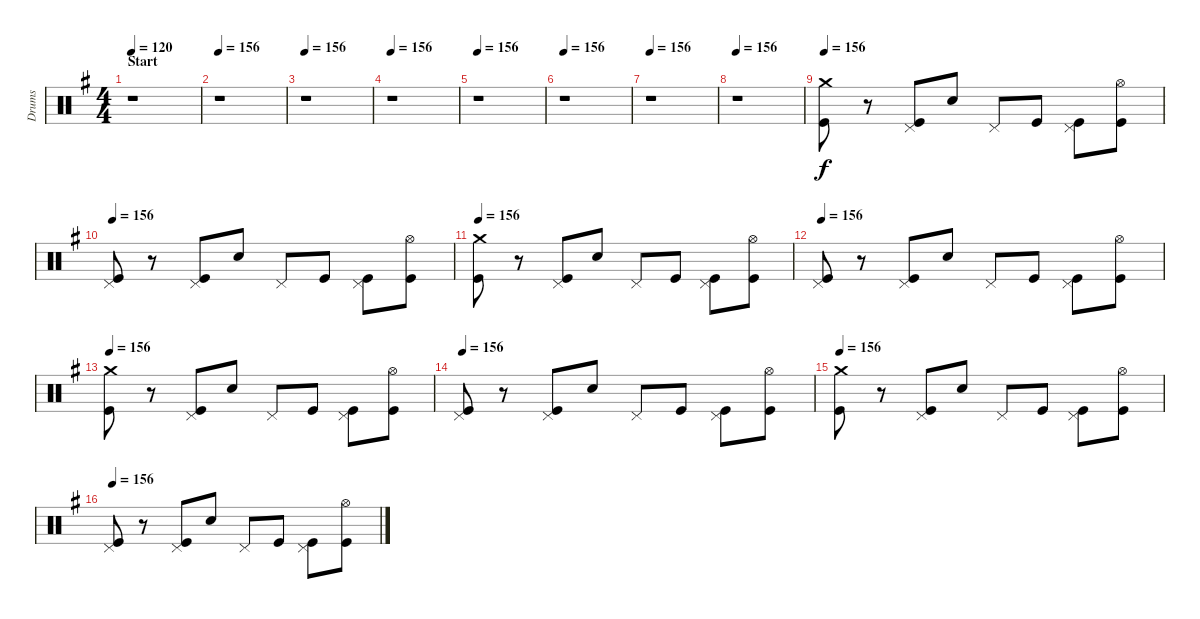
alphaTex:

\track ("Drums" "Drums") {instrument percussion}
\staff {score}
\articulation defaults
\ts (4 4)
\section ("" "Start")
\tempo 120
\tempo 156
\tempo 120
\clef neutral
\ks g
r.1{dy f} |
\tempo 156
r.1 |
\tempo 156
r.1 |
\tempo 156
r.1 |
\tempo 156
r.1 |
\tempo 156
r.1 |
\tempo 156
r.1 |
\tempo 156
r.1 |
\tempo 156
("Crash medium (hit)" "Kick (hit)").8 r.8 ("Pedal Hi-Hat (hit)" "Kick (hit)").8 "Electric Snare (hit)".8 "Pedal Hi-Hat (hit)".8 "Kick (hit)".8 ("Pedal Hi-Hat (hit)" "Kick (hit)").8 ("Hi-Hat (open)" "Kick (hit)").8 |
\tempo 156
("Pedal Hi-Hat (hit)" "Kick (hit)").8 r.8 ("Pedal Hi-Hat (hit)" "Kick (hit)").8 "Electric Snare (hit)".8 "Pedal Hi-Hat (hit)".8 "Kick (hit)".8 ("Pedal Hi-Hat (hit)" "Kick (hit)").8 ("Hi-Hat (open)" "Kick (hit)").8 |
\tempo 156
("Crash medium (hit)" "Kick (hit)").8 r.8 ("Pedal Hi-Hat (hit)" "Kick (hit)").8 "Electric Snare (hit)".8 "Pedal Hi-Hat (hit)".8 "Kick (hit)".8 ("Pedal Hi-Hat (hit)" "Kick (hit)").8 ("Hi-Hat (open)" "Kick (hit)").8 |
\tempo 156
("Pedal Hi-Hat (hit)" "Kick (hit)").8 r.8 ("Pedal Hi-Hat (hit)" "Kick (hit)").8 "Electric Snare (hit)".8 "Pedal Hi-Hat (hit)".8 "Kick (hit)".8 ("Pedal Hi-Hat (hit)" "Kick (hit)").8 ("Hi-Hat (open)" "Kick (hit)").8 |
\tempo 156
("Crash medium (hit)" "Kick (hit)").8 r.8 ("Pedal Hi-Hat (hit)" "Kick (hit)").8 "Electric Snare (hit)".8 "Pedal Hi-Hat (hit)".8 "Kick (hit)".8 ("Pedal Hi-Hat (hit)" "Kick (hit)").8 ("Hi-Hat (open)" "Kick (hit)").8 |
\tempo 156
("Pedal Hi-Hat (hit)" "Kick (hit)").8 r.8 ("Pedal Hi-Hat (hit)" "Kick (hit)").8 "Electric Snare (hit)".8 "Pedal Hi-Hat (hit)".8 "Kick (hit)".8 ("Pedal Hi-Hat (hit)" "Kick (hit)").8 ("Hi-Hat (open)" "Kick (hit)").8 |
\tempo 156
("Crash medium (hit)" "Kick (hit)").8 r.8 ("Pedal Hi-Hat (hit)" "Kick (hit)").8 "Electric Snare (hit)".8 "Pedal Hi-Hat (hit)".8 "Kick (hit)".8 ("Pedal Hi-Hat (hit)" "Kick (hit)").8 ("Hi-Hat (open)" "Kick (hit)").8 |
\tempo 156
("Pedal Hi-Hat (hit)" "Kick (hit)").8 r.8 ("Pedal Hi-Hat (hit)" "Kick (hit)").8 "Electric Snare (hit)".8 "Pedal Hi-Hat (hit)".8 "Kick (hit)".8 ("Pedal Hi-Hat (hit)" "Kick (hit)").8 ("Hi-Hat (open)" "Kick (hit)").8
